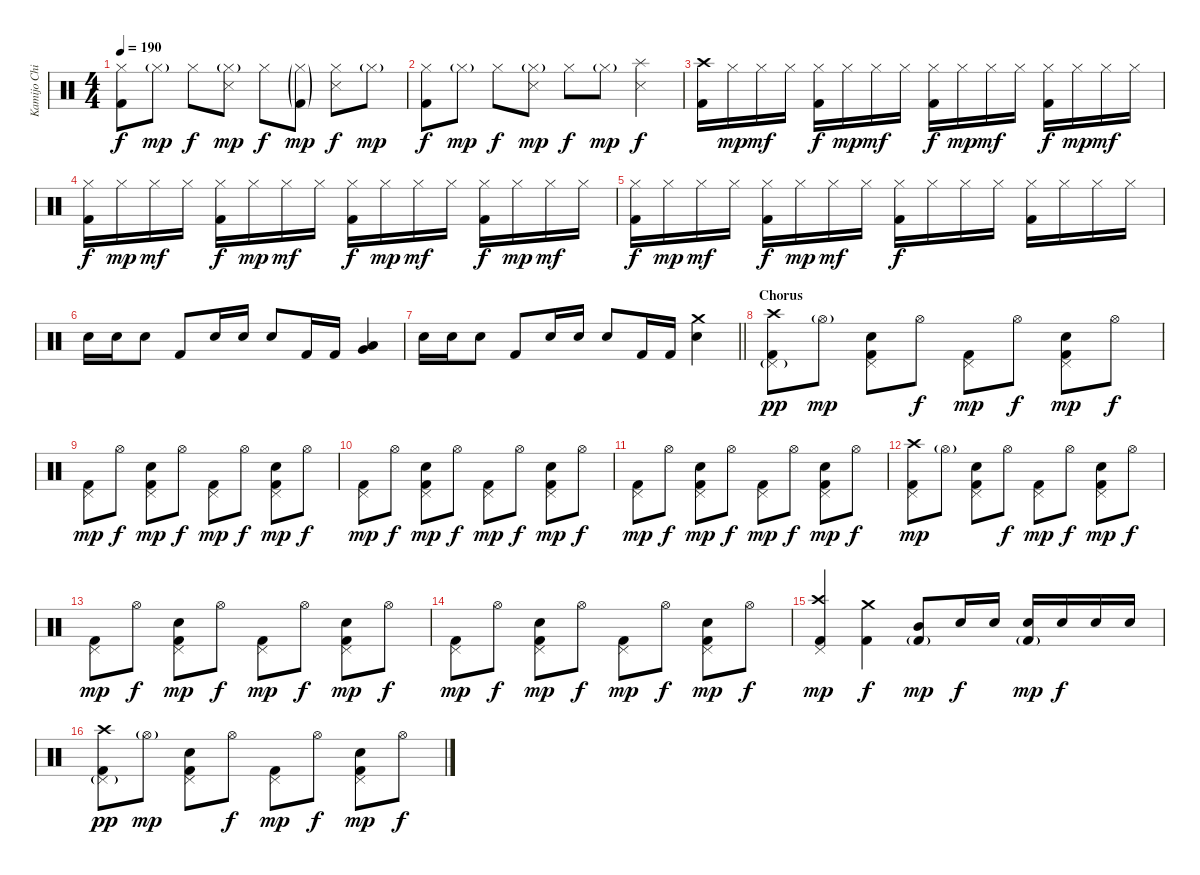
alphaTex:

\track ("Kamijo Chihiro" "Kamijo Chi") {instrument percussion}
\staff {score}
\articulation defaults
\ts (4 4)
\tempo 190
\clef neutral
\ks c
("Hi-Hat (closed)" "Kick (hit) 2").8{dy f} "Hi-Hat (closed)"{g}.8{dy mp} "Hi-Hat (closed)".8{dy f} ("Hi-Hat (closed)"{g} "Snare (side stick) 3").8{dy mp} "Hi-Hat (closed)".8{dy f} ("Hi-Hat (closed)"{g} "Kick (hit) 2"{g}).8{dy mp} ("Hi-Hat (closed)" "Snare (side stick) 3").8{dy f} "Hi-Hat (closed)"{g}.8{dy mp} |
("Hi-Hat (closed)" "Kick (hit) 2").8{dy f} "Hi-Hat (closed)"{g}.8{dy mp} "Hi-Hat (closed)".8{dy f} ("Hi-Hat (closed)"{g} "Snare (side stick) 3").8{dy mp} "Hi-Hat (closed)".8{dy f} "Hi-Hat (closed)"{g}.8{dy mp} ("Splash (hit)" "Snare (side stick) 3").4{dy f} |
("Crash high (hit)" "Kick (hit) 2").16 "Hi-Hat (closed)".16{dy mp} "Hi-Hat (closed)".16{dy mf} "Hi-Hat (closed)".16 ("Hi-Hat (closed)" "Kick (hit) 2").16{dy f} "Hi-Hat (closed)".16{dy mp} "Hi-Hat (closed)".16{dy mf} "Hi-Hat (closed)".16 ("Hi-Hat (closed)" "Kick (hit) 2").16{dy f} "Hi-Hat (closed)".16{dy mp} "Hi-Hat (closed)".16{dy mf} "Hi-Hat (closed)".16 ("Hi-Hat (closed)" "Kick (hit) 2").16{dy f} "Hi-Hat (closed)".16{dy mp} "Hi-Hat (closed)".16{dy mf} "Hi-Hat (closed)".16 |
("Hi-Hat (closed)" "Kick (hit) 2").16{dy f} "Hi-Hat (closed)".16{dy mp} "Hi-Hat (closed)".16{dy mf} "Hi-Hat (closed)".16 ("Hi-Hat (closed)" "Kick (hit) 2").16{dy f} "Hi-Hat (closed)".16{dy mp} "Hi-Hat (closed)".16{dy mf} "Hi-Hat (closed)".16 ("Hi-Hat (closed)" "Kick (hit) 2").16{dy f} "Hi-Hat (closed)".16{dy mp} "Hi-Hat (closed)".16{dy mf} "Hi-Hat (closed)".16 ("Hi-Hat (closed)" "Kick (hit) 2").16{dy f} "Hi-Hat (closed)".16{dy mp} "Hi-Hat (closed)".16{dy mf} "Hi-Hat (closed)".16 |
("Hi-Hat (closed)" "Kick (hit) 2").16{dy f} "Hi-Hat (closed)".16{dy mp} "Hi-Hat (closed)".16{dy mf} "Hi-Hat (closed)".16 ("Hi-Hat (closed)" "Kick (hit) 2").16{dy f} "Hi-Hat (closed)".16{dy mp} "Hi-Hat (closed)".16{dy mf} "Hi-Hat (closed)".16 ("Hi-Hat (closed)" "Kick (hit) 2").16{dy f} "Hi-Hat (closed)".16 "Hi-Hat (closed)".16 "Hi-Hat (closed)".16 ("Hi-Hat (closed)" "Kick (hit) 2").16 "Hi-Hat (closed)".16 "Hi-Hat (closed)".16 "Hi-Hat (closed)".16 |
"Snare (hit) 2".16 "Snare (hit) 2".16 "Snare (hit) 2".8 "Kick (hit) 2".8 "Snare (hit) 2".16 "Snare (hit) 2".16 "Snare (hit) 2".8 "Kick (hit) 2".16 "Kick (hit) 2".16 ("Low Tom (hit)" "Very Low Tom (hit)").4 |
\barLineRight lightlight "Snare (hit) 2".16 "Snare (hit) 2".16 "Snare (hit) 2".8 "Kick (hit) 2".8 "Snare (hit) 2".16 "Snare (hit) 2".16 "Snare (hit) 2".8 "Kick (hit) 2".16 "Kick (hit) 2".16
("Crash medium (hit)" "Snare (hit) 2").4 |
\section ("" "Chorus")
("Crash high (hit)" "Pedal Hi-Hat (hit)"{g} "Kick (hit) 2").8{dy pp} "Hi-Hat (open)"{g}.8{dy mp} ("Pedal Hi-Hat (hit)" "Snare (hit) 2" "Kick (hit) 2").8 "Hi-Hat (open)".8{dy f} ("Pedal Hi-Hat (hit)" "Kick (hit) 2").8{dy mp} "Hi-Hat (open)".8{dy f} ("Pedal Hi-Hat (hit)" "Snare (hit) 2" "Kick (hit) 2").8{dy mp} "Hi-Hat (open)".8{dy f} |
("Pedal Hi-Hat (hit)" "Kick (hit) 2").8{dy mp} "Hi-Hat (open)".8{dy f} ("Pedal Hi-Hat (hit)" "Snare (hit) 2" "Kick (hit) 2").8{dy mp} "Hi-Hat (open)".8{dy f} ("Pedal Hi-Hat (hit)" "Kick (hit) 2").8{dy mp} "Hi-Hat (open)".8{dy f} ("Pedal Hi-Hat (hit)" "Snare (hit) 2" "Kick (hit) 2").8{dy mp} "Hi-Hat (open)".8{dy f} |
("Pedal Hi-Hat (hit)" "Kick (hit) 2").8{dy mp} "Hi-Hat (open)".8{dy f} ("Pedal Hi-Hat (hit)" "Snare (hit) 2" "Kick (hit) 2").8{dy mp} "Hi-Hat (open)".8{dy f} ("Pedal Hi-Hat (hit)" "Kick (hit) 2").8{dy mp} "Hi-Hat (open)".8{dy f} ("Pedal Hi-Hat (hit)" "Snare (hit) 2" "Kick (hit) 2").8{dy mp} "Hi-Hat (open)".8{dy f} |
("Pedal Hi-Hat (hit)" "Kick (hit) 2").8{dy mp} "Hi-Hat (open)".8{dy f} ("Pedal Hi-Hat (hit)" "Snare (hit) 2" "Kick (hit) 2").8{dy mp} "Hi-Hat (open)".8{dy f} ("Pedal Hi-Hat (hit)" "Kick (hit) 2").8{dy mp} "Hi-Hat (open)".8{dy f} ("Pedal Hi-Hat (hit)" "Snare (hit) 2" "Kick (hit) 2").8{dy mp} "Hi-Hat (open)".8{dy f} |
("Crash high (hit)" "Pedal Hi-Hat (hit)" "Kick (hit) 2").8{dy mp} "Hi-Hat (open)"{g}.8 ("Pedal Hi-Hat (hit)" "Snare (hit) 2" "Kick (hit) 2").8 "Hi-Hat (open)".8{dy f} ("Pedal Hi-Hat (hit)" "Kick (hit) 2").8{dy mp} "Hi-Hat (open)".8{dy f} ("Pedal Hi-Hat (hit)" "Snare (hit) 2" "Kick (hit) 2").8{dy mp} "Hi-Hat (open)".8{dy f} |
("Pedal Hi-Hat (hit)" "Kick (hit) 2").8{dy mp} "Hi-Hat (open)".8{dy f} ("Pedal Hi-Hat (hit)" "Snare (hit) 2" "Kick (hit) 2").8{dy mp} "Hi-Hat (open)".8{dy f} ("Pedal Hi-Hat (hit)" "Kick (hit) 2").8{dy mp} "Hi-Hat (open)".8{dy f} ("Pedal Hi-Hat (hit)" "Snare (hit) 2" "Kick (hit) 2").8{dy mp} "Hi-Hat (open)".8{dy f} |
("Pedal Hi-Hat (hit)" "Kick (hit) 2").8{dy mp} "Hi-Hat (open)".8{dy f} ("Pedal Hi-Hat (hit)" "Snare (hit) 2" "Kick (hit) 2").8{dy mp} "Hi-Hat (open)".8{dy f} ("Pedal Hi-Hat (hit)" "Kick (hit) 2").8{dy mp} "Hi-Hat (open)".8{dy f} ("Pedal Hi-Hat (hit)" "Snare (hit) 2" "Kick (hit) 2").8{dy mp} "Hi-Hat (open)".8{dy f} |
("Crash high (hit)" "Pedal Hi-Hat (hit)" "Kick (hit) 2").4{dy mp} ("Crash medium (hit)" "Kick (hit) 2").4{dy f} ("Mid Tom (hit)" "Kick (hit) 2"{g}).8{dy mp} "Snare (hit) 2".16{dy f} "Snare (hit) 2".16 ("Snare (hit) 2" "Kick (hit) 2"{g}).16{dy mp} "Snare (hit) 2".16{dy f} "Snare (hit) 2".16 "Snare (hit) 2".16 |
("Crash high (hit)" "Pedal Hi-Hat (hit)"{g} "Kick (hit) 2").8{dy pp} "Hi-Hat (open)"{g}.8{dy mp} ("Pedal Hi-Hat (hit)" "Snare (hit) 2" "Kick (hit) 2").8 "Hi-Hat (open)".8{dy f} ("Pedal Hi-Hat (hit)" "Kick (hit) 2").8{dy mp} "Hi-Hat (open)".8{dy f} ("Pedal Hi-Hat (hit)" "Snare (hit) 2" "Kick (hit) 2").8{dy mp} "Hi-Hat (open)".8{dy f}
